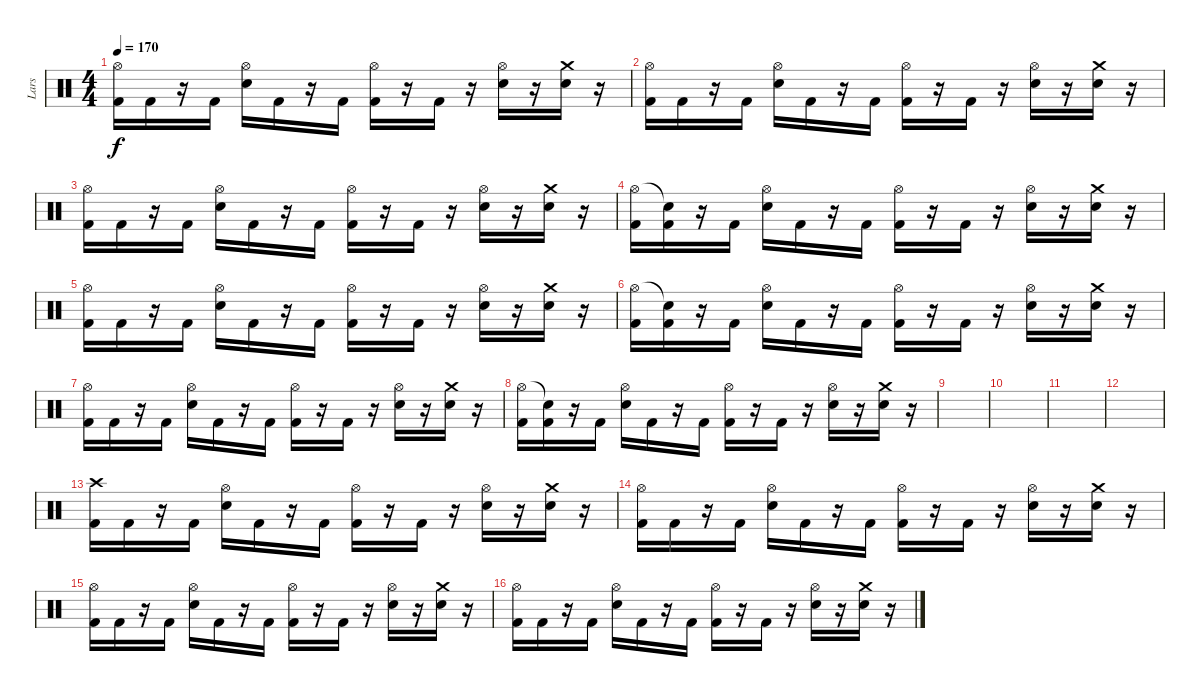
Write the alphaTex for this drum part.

\track ("Lars" "Lars") {instrument percussion}
\staff {score}
\articulation defaults
\ts (4 4)
\tempo 170
\clef neutral
\ks c
("Hi-Hat (open)" "Kick (hit) 2").16{dy f} "Kick (hit) 2".16 r.16 "Kick (hit) 2".16 ("Hi-Hat (open)" "Electric Snare (hit)").16 "Kick (hit) 2".16 r.16 "Kick (hit) 2".16 ("Hi-Hat (open)" "Kick (hit) 2").16 r.16 "Kick (hit) 2".16 r.16 ("Hi-Hat (open)" "Electric Snare (hit)").16 r.16 ("Crash medium (hit)" "Electric Snare (hit)").16 r.16 |
("Hi-Hat (open)" "Kick (hit) 2").16 "Kick (hit) 2".16 r.16 "Kick (hit) 2".16 ("Hi-Hat (open)" "Electric Snare (hit)").16 "Kick (hit) 2".16 r.16 "Kick (hit) 2".16 ("Hi-Hat (open)" "Kick (hit) 2").16 r.16 "Kick (hit) 2".16 r.16 ("Hi-Hat (open)" "Electric Snare (hit)").16 r.16 ("Crash medium (hit)" "Electric Snare (hit)").16 r.16 |
("Hi-Hat (open)" "Kick (hit) 2").16 "Kick (hit) 2".16 r.16 "Kick (hit) 2".16 ("Hi-Hat (open)" "Electric Snare (hit)").16 "Kick (hit) 2".16 r.16 "Kick (hit) 2".16 ("Hi-Hat (open)" "Kick (hit) 2").16 r.16 "Kick (hit) 2".16 r.16 ("Hi-Hat (open)" "Electric Snare (hit)").16 r.16 ("Crash medium (hit)" "Electric Snare (hit)").16 r.16 |
("Hi-Hat (open)" "Kick (hit) 2").16 ("Snare (hit)"{t} "Kick (hit) 2").16 r.16 "Kick (hit) 2".16 ("Hi-Hat (open)" "Electric Snare (hit)").16 "Kick (hit) 2".16 r.16 "Kick (hit) 2".16 ("Hi-Hat (open)" "Kick (hit) 2").16 r.16 "Kick (hit) 2".16 r.16 ("Hi-Hat (open)" "Electric Snare (hit)").16 r.16 ("Crash medium (hit)" "Electric Snare (hit)").16 r.16 |
("Hi-Hat (open)" "Kick (hit) 2").16 "Kick (hit) 2".16 r.16 "Kick (hit) 2".16 ("Hi-Hat (open)" "Electric Snare (hit)").16 "Kick (hit) 2".16 r.16 "Kick (hit) 2".16 ("Hi-Hat (open)" "Kick (hit) 2").16 r.16 "Kick (hit) 2".16 r.16 ("Hi-Hat (open)" "Electric Snare (hit)").16 r.16 ("Crash medium (hit)" "Electric Snare (hit)").16 r.16 |
("Hi-Hat (open)" "Kick (hit) 2").16 ("Snare (hit)"{t} "Kick (hit) 2").16 r.16 "Kick (hit) 2".16 ("Hi-Hat (open)" "Electric Snare (hit)").16 "Kick (hit) 2".16 r.16 "Kick (hit) 2".16 ("Hi-Hat (open)" "Kick (hit) 2").16 r.16 "Kick (hit) 2".16 r.16 ("Hi-Hat (open)" "Electric Snare (hit)").16 r.16 ("Crash medium (hit)" "Electric Snare (hit)").16 r.16 |
("Hi-Hat (open)" "Kick (hit) 2").16 "Kick (hit) 2".16 r.16 "Kick (hit) 2".16 ("Hi-Hat (open)" "Electric Snare (hit)").16 "Kick (hit) 2".16 r.16 "Kick (hit) 2".16 ("Hi-Hat (open)" "Kick (hit) 2").16 r.16 "Kick (hit) 2".16 r.16 ("Hi-Hat (open)" "Electric Snare (hit)").16 r.16 ("Crash medium (hit)" "Electric Snare (hit)").16 r.16 |
("Hi-Hat (open)" "Kick (hit) 2").16 ("Snare (hit)"{t} "Kick (hit) 2").16 r.16 "Kick (hit) 2".16 ("Hi-Hat (open)" "Electric Snare (hit)").16 "Kick (hit) 2".16 r.16 "Kick (hit) 2".16 ("Hi-Hat (open)" "Kick (hit) 2").16 r.16 "Kick (hit) 2".16 r.16 ("Hi-Hat (open)" "Electric Snare (hit)").16 r.16 ("Crash medium (hit)" "Electric Snare (hit)").16 r.16 |
|
|
|
|
("Crash high (hit)" "Kick (hit) 2").16 "Kick (hit) 2".16 r.16 "Kick (hit) 2".16 ("Hi-Hat (open)" "Electric Snare (hit)").16 "Kick (hit) 2".16 r.16 "Kick (hit) 2".16 ("Hi-Hat (open)" "Kick (hit) 2").16 r.16 "Kick (hit) 2".16 r.16 ("Hi-Hat (open)" "Electric Snare (hit)").16 r.16 ("Crash medium (hit)" "Electric Snare (hit)").16 r.16 |
("Hi-Hat (open)" "Kick (hit) 2").16 "Kick (hit) 2".16 r.16 "Kick (hit) 2".16 ("Hi-Hat (open)" "Electric Snare (hit)").16 "Kick (hit) 2".16 r.16 "Kick (hit) 2".16 ("Hi-Hat (open)" "Kick (hit) 2").16 r.16 "Kick (hit) 2".16 r.16 ("Hi-Hat (open)" "Electric Snare (hit)").16 r.16 ("Crash medium (hit)" "Electric Snare (hit)").16 r.16 |
("Hi-Hat (open)" "Kick (hit) 2").16 "Kick (hit) 2".16 r.16 "Kick (hit) 2".16 ("Hi-Hat (open)" "Electric Snare (hit)").16 "Kick (hit) 2".16 r.16 "Kick (hit) 2".16 ("Hi-Hat (open)" "Kick (hit) 2").16 r.16 "Kick (hit) 2".16 r.16 ("Hi-Hat (open)" "Electric Snare (hit)").16 r.16 ("Crash medium (hit)" "Electric Snare (hit)").16 r.16 |
("Hi-Hat (open)" "Kick (hit) 2").16 "Kick (hit) 2".16 r.16 "Kick (hit) 2".16 ("Hi-Hat (open)" "Electric Snare (hit)").16 "Kick (hit) 2".16 r.16 "Kick (hit) 2".16 ("Hi-Hat (open)" "Kick (hit) 2").16 r.16 "Kick (hit) 2".16 r.16 ("Hi-Hat (open)" "Electric Snare (hit)").16 r.16 ("Crash medium (hit)" "Electric Snare (hit)").16 r.16
